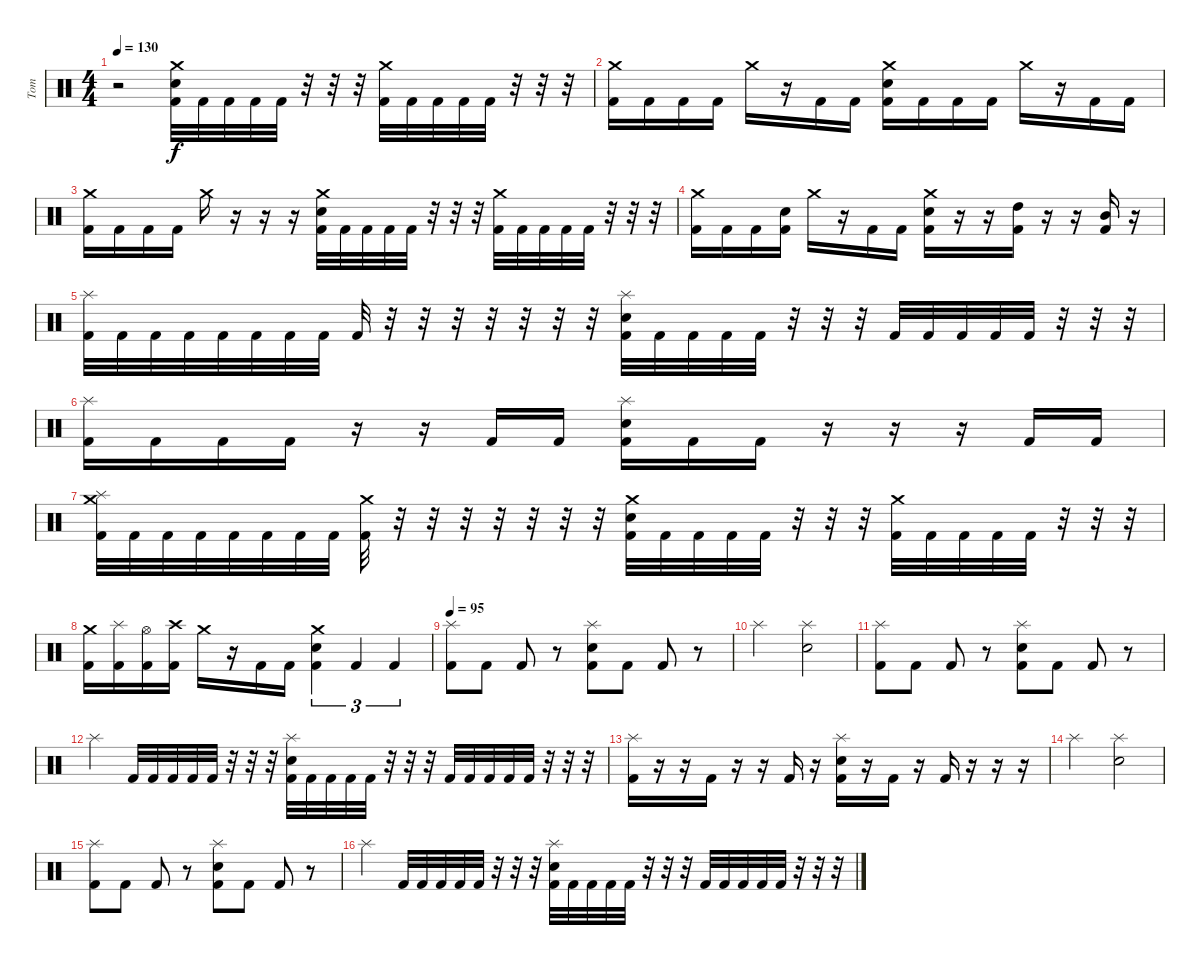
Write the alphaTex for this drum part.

\track ("Tom" "Tom") {instrument percussion}
\staff {score}
\articulation defaults
\ts (4 4)
\tempo 130
\clef neutral
\ks c
r.2{dy f} ("Crash medium (hit)" "Electric Snare (hit)" "Kick (hit) 2").32 "Kick (hit) 2".32 "Kick (hit) 2".32 "Kick (hit) 2".32 "Kick (hit) 2".32 r.32 r.32 r.32 ("Crash medium (hit)" "Kick (hit) 2").32 "Kick (hit) 2".32 "Kick (hit) 2".32 "Kick (hit) 2".32 "Kick (hit) 2".32 r.32 r.32 r.32 |
("Crash medium (hit)" "Kick (hit) 2").16 "Kick (hit) 2".16 "Kick (hit) 2".16 "Kick (hit) 2".16 "Crash medium (hit)".16 r.16 "Kick (hit) 2".16 "Kick (hit) 2".16 ("Crash medium (hit)" "Electric Snare (hit)" "Kick (hit) 2").16 "Kick (hit) 2".16 "Kick (hit) 2".16 "Kick (hit) 2".16 "Crash medium (hit)".16 r.16 "Kick (hit) 2".16 "Kick (hit) 2".16 |
("Crash medium (hit)" "Kick (hit) 2").16 "Kick (hit) 2".16 "Kick (hit) 2".16 "Kick (hit) 2".16 "Crash medium (hit)".16 r.16 r.16 r.16 ("Crash medium (hit)" "Electric Snare (hit)" "Kick (hit) 2").32 "Kick (hit) 2".32 "Kick (hit) 2".32 "Kick (hit) 2".32 "Kick (hit) 2".32 r.32 r.32 r.32 ("Crash medium (hit)" "Kick (hit) 2").32 "Kick (hit) 2".32 "Kick (hit) 2".32 "Kick (hit) 2".32 "Kick (hit) 2".32 r.32 r.32 r.32 |
("Crash medium (hit)" "Kick (hit) 2").16 "Kick (hit) 2".16 "Kick (hit) 2".16 ("Electric Snare (hit)" "Kick (hit) 2").16 "Crash medium (hit)".16 r.16 "Kick (hit) 2".16 "Kick (hit) 2".16 ("Crash medium (hit)" "Electric Snare (hit)" "Kick (hit) 2").16 r.16 r.16 ("High Tom (hit)" "Kick (hit) 2").16 r.16 r.16 ("Mid Tom (hit)" "Kick (hit) 2").16 r.16 |
("Splash (hit)" "Kick (hit) 2").32 "Kick (hit) 2".32 "Kick (hit) 2".32 "Kick (hit) 2".32 "Kick (hit) 2".32 "Kick (hit) 2".32 "Kick (hit) 2".32 "Kick (hit) 2".32 "Kick (hit) 2".32 r.32 r.32 r.32 r.32 r.32 r.32 r.32 ("Splash (hit)" "Electric Snare (hit)" "Kick (hit) 2").32 "Kick (hit) 2".32 "Kick (hit) 2".32 "Kick (hit) 2".32 "Kick (hit) 2".32 r.32 r.32 r.32 "Kick (hit) 2".32 "Kick (hit) 2".32 "Kick (hit) 2".32 "Kick (hit) 2".32 "Kick (hit) 2".32 r.32 r.32 r.32 |
("Splash (hit)" "Kick (hit) 2").16 "Kick (hit) 2".16 "Kick (hit) 2".16 "Kick (hit) 2".16 r.16 r.16 "Kick (hit) 2".16 "Kick (hit) 2".16 ("Splash (hit)" "Electric Snare (hit)" "Kick (hit) 2").16 "Kick (hit) 2".16 "Kick (hit) 2".16 r.16 r.16 r.16 "Kick (hit) 2".16 "Kick (hit) 2".16 |
("Splash (hit)" "Crash medium (hit)" "Kick (hit) 2").32 "Kick (hit) 2".32 "Kick (hit) 2".32 "Kick (hit) 2".32 "Kick (hit) 2".32 "Kick (hit) 2".32 "Kick (hit) 2".32 "Kick (hit) 2".32 ("Crash medium (hit)" "Kick (hit) 2").32 r.32 r.32 r.32 r.32 r.32 r.32 r.32 ("Crash medium (hit)" "Electric Snare (hit)" "Kick (hit) 2").32 "Kick (hit) 2".32 "Kick (hit) 2".32 "Kick (hit) 2".32 "Kick (hit) 2".32 r.32 r.32 r.32 ("Crash medium (hit)" "Kick (hit) 2").32 "Kick (hit) 2".32 "Kick (hit) 2".32 "Kick (hit) 2".32 "Kick (hit) 2".32 r.32 r.32 r.32 |
("Crash medium (hit)" "Kick (hit) 2").16 ("Splash (hit)" "Kick (hit) 2").16 ("Hi-Hat (open)" "Kick (hit) 2").16 ("Crash high (hit)" "Kick (hit) 2").16 "Crash medium (hit)".16 r.16 "Kick (hit) 2".16 "Kick (hit) 2".16 ("Crash medium (hit)" "Electric Snare (hit)" "Kick (hit) 2").4{tu (3 2)} "Kick (hit) 2".4{tu (3 2)} "Kick (hit) 2".4{tu (3 2)} |
\tempo 95
("Splash (hit)" "Kick (hit) 2").8 "Kick (hit) 2".8 "Kick (hit) 2".8 r.8 ("Splash (hit)" "Electric Snare (hit)" "Kick (hit) 2").8 "Kick (hit) 2".8 "Kick (hit) 2".8 r.8 |
"Splash (hit)".2 ("Splash (hit)" "Electric Snare (hit)").2 |
("Splash (hit)" "Kick (hit) 2").8 "Kick (hit) 2".8 "Kick (hit) 2".8 r.8 ("Splash (hit)" "Electric Snare (hit)" "Kick (hit) 2").8 "Kick (hit) 2".8 "Kick (hit) 2".8 r.8 |
"Splash (hit)".4 "Kick (hit) 2".32 "Kick (hit) 2".32 "Kick (hit) 2".32 "Kick (hit) 2".32 "Kick (hit) 2".32 r.32 r.32 r.32 ("Splash (hit)" "Electric Snare (hit)" "Kick (hit) 2").32 "Kick (hit) 2".32 "Kick (hit) 2".32 "Kick (hit) 2".32 "Kick (hit) 2".32 r.32 r.32 r.32 "Kick (hit) 2".32 "Kick (hit) 2".32 "Kick (hit) 2".32 "Kick (hit) 2".32 "Kick (hit) 2".32 r.32 r.32 r.32 |
("Splash (hit)" "Kick (hit) 2").16 r.16 r.16 "Kick (hit) 2".16 r.16 r.16 "Kick (hit) 2".16 r.16 ("Splash (hit)" "Electric Snare (hit)" "Kick (hit) 2").16 r.16 "Kick (hit) 2".16 r.16 "Kick (hit) 2".16 r.16 r.16 r.16 |
"Splash (hit)".2 ("Splash (hit)" "Electric Snare (hit)").2 |
("Splash (hit)" "Kick (hit) 2").8 "Kick (hit) 2".8 "Kick (hit) 2".8 r.8 ("Splash (hit)" "Electric Snare (hit)" "Kick (hit) 2").8 "Kick (hit) 2".8 "Kick (hit) 2".8 r.8 |
"Splash (hit)".4 "Kick (hit) 2".32 "Kick (hit) 2".32 "Kick (hit) 2".32 "Kick (hit) 2".32 "Kick (hit) 2".32 r.32 r.32 r.32 ("Splash (hit)" "Electric Snare (hit)" "Kick (hit) 2").32 "Kick (hit) 2".32 "Kick (hit) 2".32 "Kick (hit) 2".32 "Kick (hit) 2".32 r.32 r.32 r.32 "Kick (hit) 2".32 "Kick (hit) 2".32 "Kick (hit) 2".32 "Kick (hit) 2".32 "Kick (hit) 2".32 r.32 r.32 r.32
